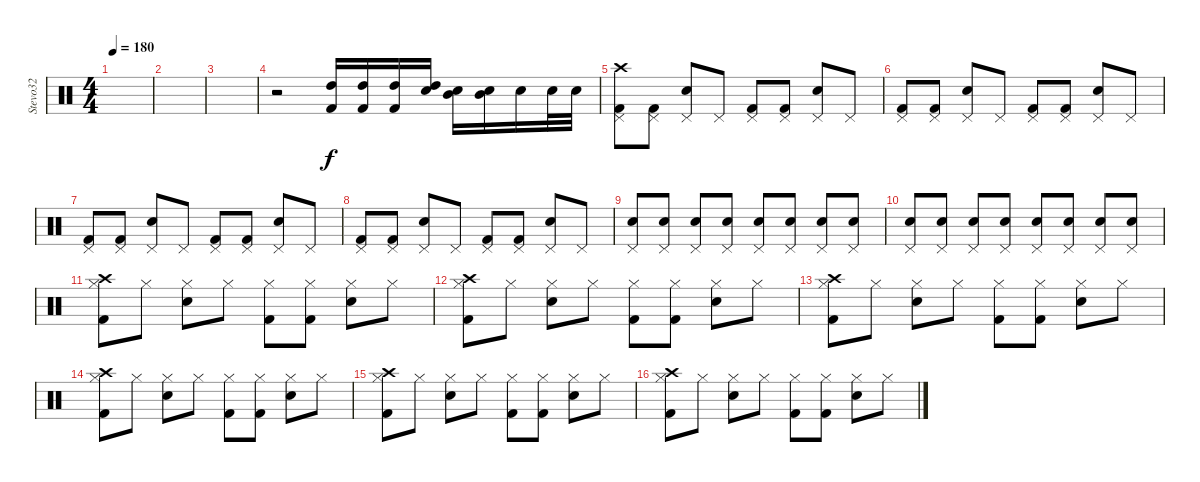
\track ("Stevo32" "Stevo32") {instrument percussion}
\staff {score}
\articulation defaults
\ts (4 4)
\tempo 180
\clef neutral
\ks c
|
|
|
r.2 ("High Tom (hit)" "Kick (hit) 2").16 ("High Tom (hit)" "Kick (hit) 2").16 ("High Tom (hit)" "Kick (hit) 2").16 ("High Tom (hit)" "Electric Snare (hit)").16 ("Mid Tom (hit)" "Electric Snare (hit)").16 ("Mid Tom (hit)" "Electric Snare (hit)").16 "Electric Snare (hit)".16 "Electric Snare (hit)".32 "Electric Snare (hit)".32 |
("Pedal Hi-Hat (hit)" "Crash high (hit)" "Kick (hit) 2").8 ("Pedal Hi-Hat (hit)" "Kick (hit) 2").8 ("Pedal Hi-Hat (hit)" "Electric Snare (hit)").8 "Pedal Hi-Hat (hit)".8 ("Pedal Hi-Hat (hit)" "Kick (hit) 2").8 ("Pedal Hi-Hat (hit)" "Kick (hit) 2").8 ("Pedal Hi-Hat (hit)" "Electric Snare (hit)").8 "Pedal Hi-Hat (hit)".8 |
("Pedal Hi-Hat (hit)" "Kick (hit) 2").8 ("Pedal Hi-Hat (hit)" "Kick (hit) 2").8 ("Pedal Hi-Hat (hit)" "Electric Snare (hit)").8 "Pedal Hi-Hat (hit)".8 ("Pedal Hi-Hat (hit)" "Kick (hit) 2").8 ("Pedal Hi-Hat (hit)" "Kick (hit) 2").8 ("Pedal Hi-Hat (hit)" "Electric Snare (hit)").8 "Pedal Hi-Hat (hit)".8 |
("Pedal Hi-Hat (hit)" "Kick (hit) 2").8 ("Pedal Hi-Hat (hit)" "Kick (hit) 2").8 ("Pedal Hi-Hat (hit)" "Electric Snare (hit)").8 "Pedal Hi-Hat (hit)".8 ("Pedal Hi-Hat (hit)" "Kick (hit) 2").8 ("Pedal Hi-Hat (hit)" "Kick (hit) 2").8 ("Pedal Hi-Hat (hit)" "Electric Snare (hit)").8 "Pedal Hi-Hat (hit)".8 |
("Pedal Hi-Hat (hit)" "Kick (hit) 2").8 ("Pedal Hi-Hat (hit)" "Kick (hit) 2").8 ("Pedal Hi-Hat (hit)" "Electric Snare (hit)").8 "Pedal Hi-Hat (hit)".8 ("Pedal Hi-Hat (hit)" "Kick (hit) 2").8 ("Pedal Hi-Hat (hit)" "Kick (hit) 2").8 ("Pedal Hi-Hat (hit)" "Electric Snare (hit)").8 "Pedal Hi-Hat (hit)".8 |
("Pedal Hi-Hat (hit)" "Electric Snare (hit)").8 ("Pedal Hi-Hat (hit)" "Electric Snare (hit)").8 ("Pedal Hi-Hat (hit)" "Electric Snare (hit)").8 ("Pedal Hi-Hat (hit)" "Electric Snare (hit)").8 ("Pedal Hi-Hat (hit)" "Electric Snare (hit)").8 ("Pedal Hi-Hat (hit)" "Electric Snare (hit)").8 ("Pedal Hi-Hat (hit)" "Electric Snare (hit)").8 ("Pedal Hi-Hat (hit)" "Electric Snare (hit)").8 |
("Pedal Hi-Hat (hit)" "Electric Snare (hit)").8 ("Pedal Hi-Hat (hit)" "Electric Snare (hit)").8 ("Pedal Hi-Hat (hit)" "Electric Snare (hit)").8 ("Pedal Hi-Hat (hit)" "Electric Snare (hit)").8 ("Pedal Hi-Hat (hit)" "Electric Snare (hit)").8 ("Pedal Hi-Hat (hit)" "Electric Snare (hit)").8 ("Pedal Hi-Hat (hit)" "Electric Snare (hit)").8 ("Pedal Hi-Hat (hit)" "Electric Snare (hit)").8 |
("Hi-Hat (closed)" "Kick (hit) 2" "Crash high (hit)").8 "Hi-Hat (closed)".8 ("Hi-Hat (closed)" "Electric Snare (hit)").8 "Hi-Hat (closed)".8 ("Hi-Hat (closed)" "Kick (hit) 2").8 ("Hi-Hat (closed)" "Kick (hit) 2").8 ("Hi-Hat (closed)" "Electric Snare (hit)").8 "Hi-Hat (closed)".8 |
("Hi-Hat (closed)" "Kick (hit) 2" "Crash high (hit)").8 "Hi-Hat (closed)".8 ("Hi-Hat (closed)" "Electric Snare (hit)").8 "Hi-Hat (closed)".8 ("Hi-Hat (closed)" "Kick (hit) 2").8 ("Hi-Hat (closed)" "Kick (hit) 2").8 ("Hi-Hat (closed)" "Electric Snare (hit)").8 "Hi-Hat (closed)".8 |
("Hi-Hat (closed)" "Kick (hit) 2" "Crash high (hit)").8 "Hi-Hat (closed)".8 ("Hi-Hat (closed)" "Electric Snare (hit)").8 "Hi-Hat (closed)".8 ("Hi-Hat (closed)" "Kick (hit) 2").8 ("Hi-Hat (closed)" "Kick (hit) 2").8 ("Hi-Hat (closed)" "Electric Snare (hit)").8 "Hi-Hat (closed)".8 |
("Hi-Hat (closed)" "Kick (hit) 2" "Crash high (hit)").8 "Hi-Hat (closed)".8 ("Hi-Hat (closed)" "Electric Snare (hit)").8 "Hi-Hat (closed)".8 ("Hi-Hat (closed)" "Kick (hit) 2").8 ("Hi-Hat (closed)" "Kick (hit) 2").8 ("Hi-Hat (closed)" "Electric Snare (hit)").8 "Hi-Hat (closed)".8 |
("Hi-Hat (closed)" "Kick (hit) 2" "Crash high (hit)").8 "Hi-Hat (closed)".8 ("Hi-Hat (closed)" "Electric Snare (hit)").8 "Hi-Hat (closed)".8 ("Hi-Hat (closed)" "Kick (hit) 2").8 ("Hi-Hat (closed)" "Kick (hit) 2").8 ("Hi-Hat (closed)" "Electric Snare (hit)").8 "Hi-Hat (closed)".8 |
("Hi-Hat (closed)" "Kick (hit) 2" "Crash high (hit)").8 "Hi-Hat (closed)".8 ("Hi-Hat (closed)" "Electric Snare (hit)").8 "Hi-Hat (closed)".8 ("Hi-Hat (closed)" "Kick (hit) 2").8 ("Hi-Hat (closed)" "Kick (hit) 2").8 ("Hi-Hat (closed)" "Electric Snare (hit)").8 "Hi-Hat (closed)".8
